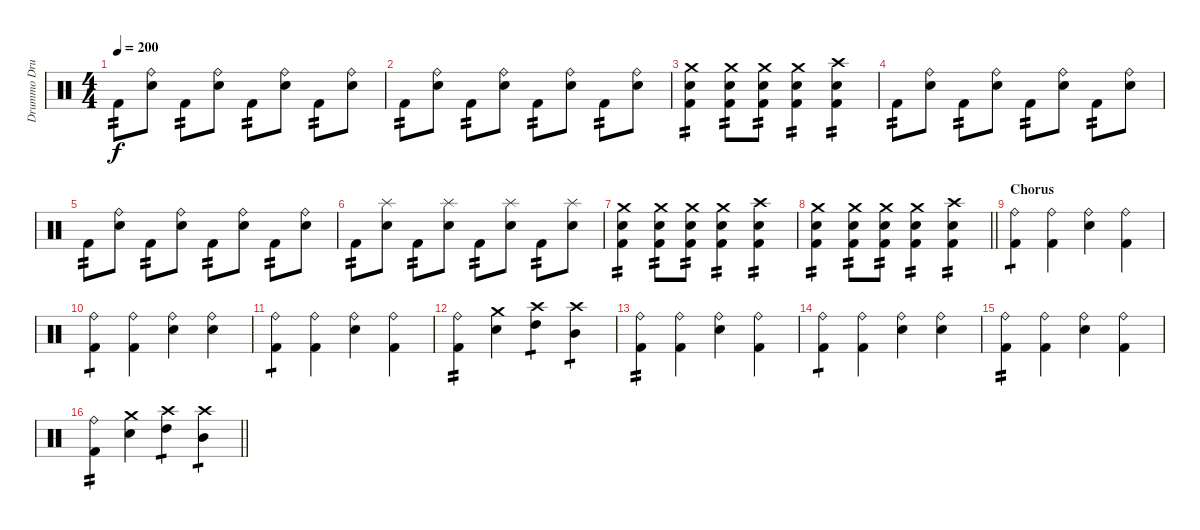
\track ("Drummo Drummer" "Drummo Dru") {instrument percussion}
\staff {score}
\articulation defaults
\ts (4 4)
\tempo 200
\clef neutral
\ks c "Kick (hit) 2".8{tp 2 dy f}
("Ride (bell)" "Electric Snare (hit)").8 "Kick (hit) 2".8{tp 2} ("Ride (bell)" "Electric Snare (hit)").8 "Kick (hit) 2".8{tp 2} ("Ride (bell)" "Electric Snare (hit)").8 "Kick (hit) 2".8{tp 2} ("Ride (bell)" "Electric Snare (hit)").8 |
"Kick (hit) 2".8{tp 2} ("Ride (bell)" "Electric Snare (hit)").8 "Kick (hit) 2".8{tp 2} ("Ride (bell)" "Electric Snare (hit)").8 "Kick (hit) 2".8{tp 2} ("Ride (bell)" "Electric Snare (hit)").8 "Kick (hit) 2".8{tp 2} ("Ride (bell)" "Electric Snare (hit)").8 |
("Crash medium (hit)" "Electric Snare (hit)" "Kick (hit) 2").4{tp 2} ("Crash medium (hit)" "Electric Snare (hit)" "Kick (hit) 2").8{tp 2} ("Crash medium (hit)" "Electric Snare (hit)" "Kick (hit) 2").8{tp 2} ("Crash medium (hit)" "Electric Snare (hit)" "Kick (hit) 2").4{tp 2} ("Crash high (hit)" "Electric Snare (hit)" "Kick (hit) 2").4{tp 2} |
"Kick (hit) 2".8{tp 2} ("Ride (bell)" "Electric Snare (hit)").8 "Kick (hit) 2".8{tp 2} ("Ride (bell)" "Electric Snare (hit)").8 "Kick (hit) 2".8{tp 2} ("Ride (bell)" "Electric Snare (hit)").8 "Kick (hit) 2".8{tp 2} ("Ride (bell)" "Electric Snare (hit)").8 |
"Kick (hit) 2".8{tp 2} ("Ride (bell)" "Electric Snare (hit)").8 "Kick (hit) 2".8{tp 2} ("Ride (bell)" "Electric Snare (hit)").8 "Kick (hit) 2".8{tp 2} ("Ride (bell)" "Electric Snare (hit)").8 "Kick (hit) 2".8{tp 2} ("Ride (bell)" "Electric Snare (hit)").8 |
"Kick (hit) 2".8{tp 2} ("Splash (hit)" "Electric Snare (hit)").8 "Kick (hit) 2".8{tp 2} ("Splash (hit)" "Electric Snare (hit)").8 "Kick (hit) 2".8{tp 2} ("Splash (hit)" "Electric Snare (hit)").8 "Kick (hit) 2".8{tp 2} ("Splash (hit)" "Electric Snare (hit)").8 |
("Crash medium (hit)" "Electric Snare (hit)" "Kick (hit) 2").4{tp 2} ("Crash medium (hit)" "Electric Snare (hit)" "Kick (hit) 2").8{tp 2} ("Crash medium (hit)" "Electric Snare (hit)" "Kick (hit) 2").8{tp 2} ("Crash medium (hit)" "Electric Snare (hit)" "Kick (hit) 2").4{tp 2} ("Crash high (hit)" "Electric Snare (hit)" "Kick (hit) 2").4{tp 2} |
\barLineRight lightlight
("Crash medium (hit)" "Electric Snare (hit)" "Kick (hit) 2").4{tp 2} ("Crash medium (hit)" "Electric Snare (hit)" "Kick (hit) 2").8{tp 2} ("Crash medium (hit)" "Electric Snare (hit)" "Kick (hit) 2").8{tp 2} ("Crash medium (hit)" "Electric Snare (hit)" "Kick (hit) 2").4{tp 2} ("Crash high (hit)" "Electric Snare (hit)" "Kick (hit) 2").4{tp 2} |
\section ("" "Chorus")
("Ride (bell)" "Kick (hit) 2").4{tp 1} ("Ride (bell)" "Kick (hit) 2").4 ("Ride (bell)" "Electric Snare (hit)").4 ("Ride (bell)" "Kick (hit) 2").4 |
("Ride (bell)" "Kick (hit) 2").4{tp 1} ("Ride (bell)" "Kick (hit) 2").4 ("Ride (bell)" "Electric Snare (hit)").4 ("Ride (bell)" "Electric Snare (hit)").4 |
("Ride (bell)" "Kick (hit) 2").4{tp 1} ("Ride (bell)" "Kick (hit) 2").4 ("Ride (bell)" "Electric Snare (hit)").4 ("Ride (bell)" "Kick (hit) 2").4 |
("Ride (bell)" "Kick (hit) 2").4{tp 2} ("Crash medium (hit)" "Electric Snare (hit)").4 ("Crash high (hit)" "High Tom (hit)").4{tp 1} ("Crash high (hit)" "Mid Tom (hit)").4{tp 1} |
("Ride (bell)" "Kick (hit) 2").4{tp 2} ("Ride (bell)" "Kick (hit) 2").4 ("Ride (bell)" "Electric Snare (hit)").4 ("Ride (bell)" "Kick (hit) 2").4 |
("Ride (bell)" "Kick (hit) 2").4{tp 1} ("Ride (bell)" "Kick (hit) 2").4 ("Ride (bell)" "Electric Snare (hit)").4 ("Ride (bell)" "Electric Snare (hit)").4 |
("Ride (bell)" "Kick (hit) 2").4{tp 2} ("Ride (bell)" "Kick (hit) 2").4 ("Ride (bell)" "Electric Snare (hit)").4 ("Ride (bell)" "Kick (hit) 2").4 |
\barLineRight lightlight
("Ride (bell)" "Kick (hit) 2").4{tp 2} ("Crash medium (hit)" "Electric Snare (hit)").4 ("Crash high (hit)" "High Tom (hit)").4{tp 1} ("Crash high (hit)" "Mid Tom (hit)").4{tp 1}
